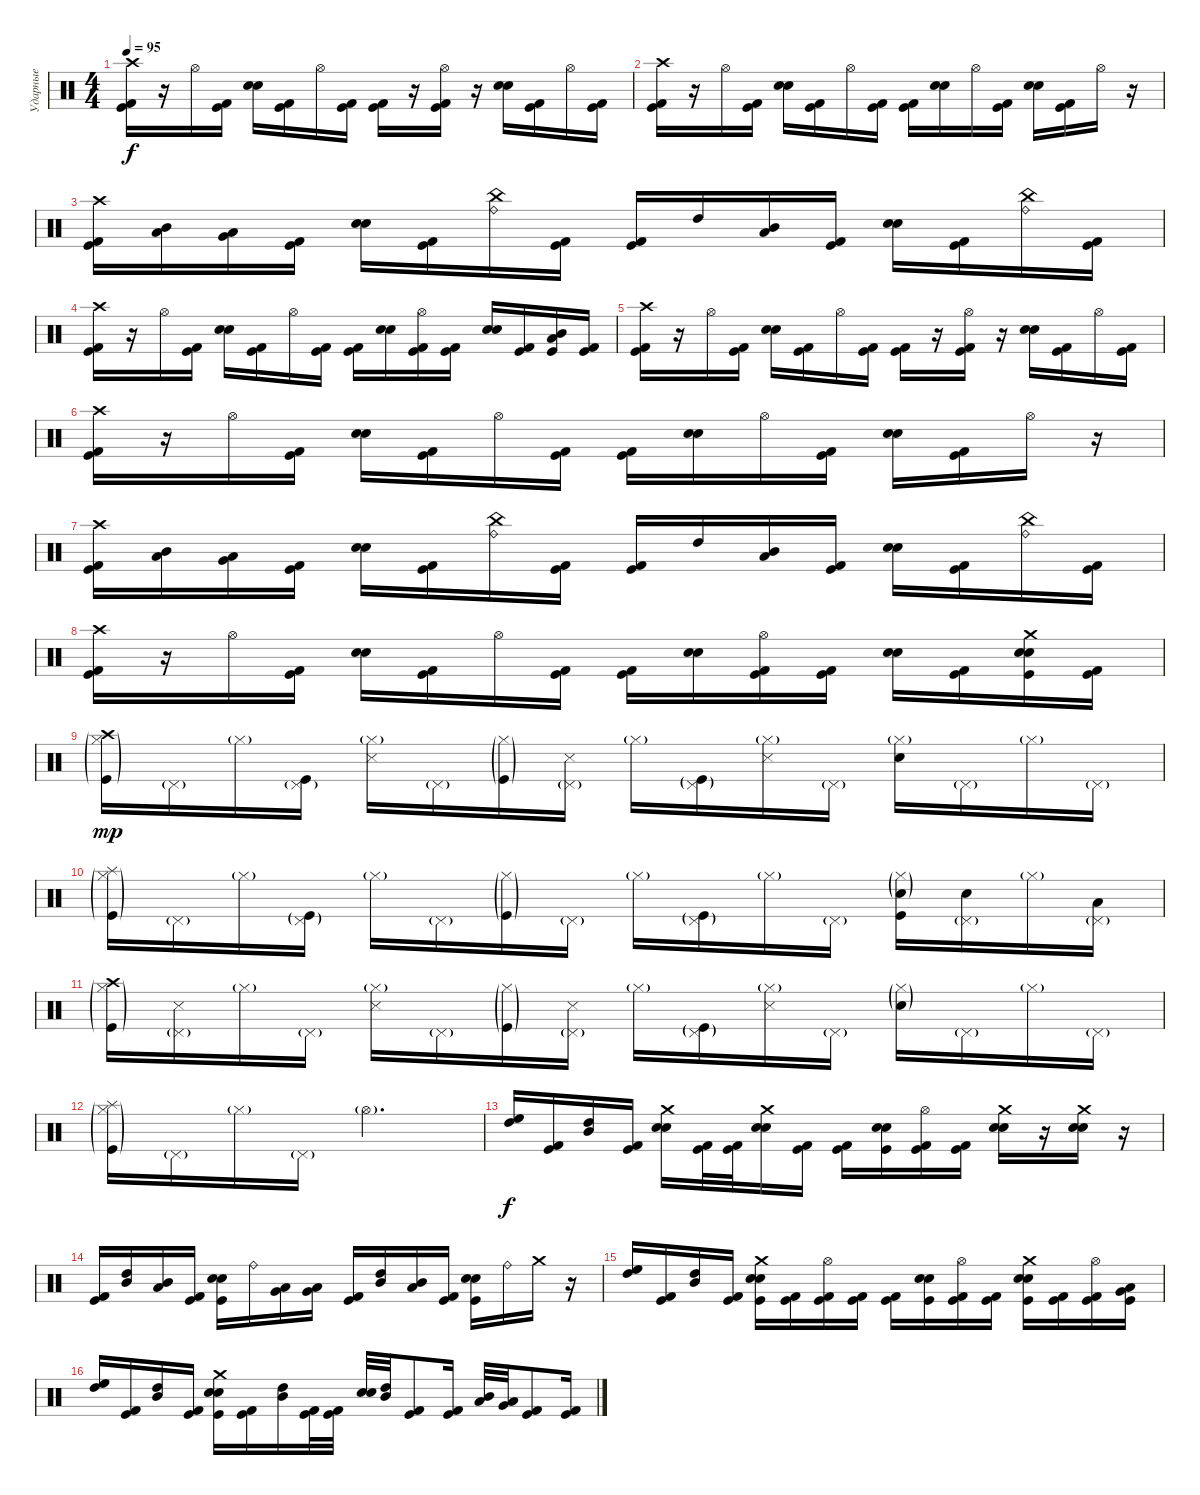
\track ("Ударные" "Ударные") {instrument percussion}
\staff {score}
\articulation defaults
\ts (4 4)
\tempo 95
\clef neutral
\ks c
("Crash high (hit)" "Kick (hit) 2" "Kick (hit)").16{dy f} r.16 "Hi-Hat (open)".16 ("Kick (hit) 2" "Kick (hit)").16 ("Snare (hit)" "Electric Snare (hit)").16 ("Kick (hit) 2" "Kick (hit)").16 "Hi-Hat (open)".16 ("Kick (hit) 2" "Kick (hit)").16 ("Kick (hit) 2" "Kick (hit)").16 r.16 ("Hi-Hat (open)" "Kick (hit) 2" "Kick (hit)").16 r.16 ("Electric Snare (hit)" "Snare (hit)").16 ("Kick (hit) 2" "Kick (hit)").16 "Hi-Hat (open)".16 ("Kick (hit) 2" "Kick (hit)").16 |
("Crash high (hit)" "Kick (hit) 2" "Kick (hit)").16 r.16 "Hi-Hat (open)".16 ("Kick (hit) 2" "Kick (hit)").16 ("Snare (hit)" "Electric Snare (hit)").16 ("Kick (hit) 2" "Kick (hit)").16 "Hi-Hat (open)".16 ("Kick (hit) 2" "Kick (hit)").16 ("Kick (hit) 2" "Kick (hit)").16 ("Snare (hit)" "Electric Snare (hit)").16 "Hi-Hat (open)".16 ("Kick (hit) 2" "Kick (hit)").16 ("Electric Snare (hit)" "Snare (hit)").16 ("Kick (hit) 2" "Kick (hit)").16 "Hi-Hat (open)".16 r.16 |
("Crash high (hit)" "Kick (hit) 2" "Kick (hit)").16 ("Mid Tom (hit)" "Low Tom (hit)").16 ("Low Tom (hit)" "Very Low Tom (hit)").16 ("Kick (hit) 2" "Kick (hit)").16 ("Snare (hit)" "Electric Snare (hit)").16 ("Kick (hit) 2" "Kick (hit)").16 ("China (hit)" "Ride (bell)").16 ("Kick (hit) 2" "Kick (hit)").16 ("Kick (hit) 2" "Kick (hit)").16 "High Tom (hit)".16 ("Mid Tom (hit)" "Low Tom (hit)").16 ("Kick (hit) 2" "Kick (hit)").16 ("Electric Snare (hit)" "Snare (hit)").16 ("Kick (hit) 2" "Kick (hit)").16 ("China (hit)" "Ride (bell)").16 ("Kick (hit) 2" "Kick (hit)").16 |
("Crash high (hit)" "Kick (hit) 2" "Kick (hit)").16 r.16 "Hi-Hat (open)".16 ("Kick (hit) 2" "Kick (hit)").16 ("Snare (hit)" "Electric Snare (hit)").16 ("Kick (hit) 2" "Kick (hit)").16 "Hi-Hat (open)".16 ("Kick (hit) 2" "Kick (hit)").16 ("Kick (hit) 2" "Kick (hit)").16 ("Snare (hit)" "Electric Snare (hit)").16 ("Hi-Hat (open)" "Kick (hit) 2" "Kick (hit)").16 ("Kick (hit) 2" "Kick (hit)").16 ("Electric Snare (hit)" "Snare (hit)").16 ("Kick (hit) 2" "Kick (hit)").16 ("Mid Tom (hit)" "Low Tom (hit)" "Kick (hit)").16 ("Kick (hit) 2" "Kick (hit)").16 |
("Crash high (hit)" "Kick (hit) 2" "Kick (hit)").16 r.16 "Hi-Hat (open)".16 ("Kick (hit) 2" "Kick (hit)").16 ("Snare (hit)" "Electric Snare (hit)").16 ("Kick (hit) 2" "Kick (hit)").16 "Hi-Hat (open)".16 ("Kick (hit) 2" "Kick (hit)").16 ("Kick (hit) 2" "Kick (hit)").16 r.16 ("Hi-Hat (open)" "Kick (hit) 2" "Kick (hit)").16 r.16 ("Electric Snare (hit)" "Snare (hit)").16 ("Kick (hit) 2" "Kick (hit)").16 "Hi-Hat (open)".16 ("Kick (hit) 2" "Kick (hit)").16 |
("Crash high (hit)" "Kick (hit) 2" "Kick (hit)").16 r.16 "Hi-Hat (open)".16 ("Kick (hit) 2" "Kick (hit)").16 ("Snare (hit)" "Electric Snare (hit)").16 ("Kick (hit) 2" "Kick (hit)").16 "Hi-Hat (open)".16 ("Kick (hit) 2" "Kick (hit)").16 ("Kick (hit) 2" "Kick (hit)").16 ("Snare (hit)" "Electric Snare (hit)").16 "Hi-Hat (open)".16 ("Kick (hit) 2" "Kick (hit)").16 ("Electric Snare (hit)" "Snare (hit)").16 ("Kick (hit) 2" "Kick (hit)").16 "Hi-Hat (open)".16 r.16 |
("Crash high (hit)" "Kick (hit) 2" "Kick (hit)").16 ("Mid Tom (hit)" "Low Tom (hit)").16 ("Low Tom (hit)" "Very Low Tom (hit)").16 ("Kick (hit) 2" "Kick (hit)").16 ("Snare (hit)" "Electric Snare (hit)").16 ("Kick (hit) 2" "Kick (hit)").16 ("China (hit)" "Ride (bell)").16 ("Kick (hit) 2" "Kick (hit)").16 ("Kick (hit) 2" "Kick (hit)").16 "High Tom (hit)".16 ("Mid Tom (hit)" "Low Tom (hit)").16 ("Kick (hit) 2" "Kick (hit)").16 ("Electric Snare (hit)" "Snare (hit)").16 ("Kick (hit) 2" "Kick (hit)").16 ("China (hit)" "Ride (bell)").16 ("Kick (hit) 2" "Kick (hit)").16 |
("Crash high (hit)" "Kick (hit) 2" "Kick (hit)").16 r.16 "Hi-Hat (open)".16 ("Kick (hit) 2" "Kick (hit)").16 ("Snare (hit)" "Electric Snare (hit)").16 ("Kick (hit) 2" "Kick (hit)").16 "Hi-Hat (open)".16 ("Kick (hit) 2" "Kick (hit)").16 ("Kick (hit) 2" "Kick (hit)").16 ("Snare (hit)" "Electric Snare (hit)").16 ("Hi-Hat (open)" "Kick (hit) 2" "Kick (hit)").16 ("Kick (hit) 2" "Kick (hit)").16 ("Electric Snare (hit)" "Snare (hit)").16 ("Kick (hit) 2" "Kick (hit)").16 ("Crash medium (hit)" "Snare (hit)" "Electric Snare (hit)" "Kick (hit)").16 ("Kick (hit) 2" "Kick (hit)").16 |
("Hi-Hat (closed)"{g} "Crash high (hit)"{g} "Kick (hit)"{g}).16{dy mp} "Pedal Hi-Hat (hit)"{g}.16 "Hi-Hat (closed)"{g}.16 ("Pedal Hi-Hat (hit)"{g} "Kick (hit)").16 ("Hi-Hat (closed)"{g} "Snare (side stick) 3").16 "Pedal Hi-Hat (hit)"{g}.16 ("Hi-Hat (closed)"{g} "Kick (hit)"{g}).16 ("Pedal Hi-Hat (hit)"{g} "Metronome (hit)").16 "Hi-Hat (closed)"{g}.16 ("Pedal Hi-Hat (hit)"{g} "Kick (hit)"{g}).16 ("Hi-Hat (closed)"{g} "Snare (side stick) 3").16 "Pedal Hi-Hat (hit)"{g}.16 ("Hi-Hat (closed)"{g} "Electric Snare (hit)").16 "Pedal Hi-Hat (hit)"{g}.16 "Hi-Hat (closed)"{g}.16 "Pedal Hi-Hat (hit)"{g}.16 |
("Hi-Hat (closed)"{g} "Splash (hit)"{g} "Kick (hit)"{g}).16 "Pedal Hi-Hat (hit)"{g}.16 "Hi-Hat (closed)"{g}.16 ("Pedal Hi-Hat (hit)"{g} "Kick (hit)"{g}).16 "Hi-Hat (closed)"{g}.16 "Pedal Hi-Hat (hit)"{g}.16 ("Hi-Hat (closed)"{g} "Kick (hit)"{g}).16 "Pedal Hi-Hat (hit)"{g}.16 "Hi-Hat (closed)"{g}.16 ("Pedal Hi-Hat (hit)"{g} "Kick (hit)"{g}).16 "Hi-Hat (closed)"{g}.16 "Pedal Hi-Hat (hit)"{g}.16 ("Hi-Hat (closed)"{g} "Electric Snare (hit)"{g} "Kick (hit)").16 ("Pedal Hi-Hat (hit)"{g} "Electric Snare (hit)").16 "Hi-Hat (closed)"{g}.16 ("Pedal Hi-Hat (hit)"{g} "Low Tom (hit)").16 |
("Hi-Hat (closed)"{g} "Crash high (hit)"{g} "Kick (hit)"{g}).16 ("Pedal Hi-Hat (hit)"{g} "Metronome (hit)").16 "Hi-Hat (closed)"{g}.16 "Pedal Hi-Hat (hit)"{g}.16 ("Hi-Hat (closed)"{g} "Snare (side stick) 3").16 "Pedal Hi-Hat (hit)"{g}.16 ("Hi-Hat (closed)"{g} "Kick (hit)"{g}).16 ("Pedal Hi-Hat (hit)"{g} "Metronome (hit)").16 "Hi-Hat (closed)"{g}.16 ("Pedal Hi-Hat (hit)"{g} "Kick (hit)"{g}).16 ("Hi-Hat (closed)"{g} "Snare (side stick) 3").16 "Pedal Hi-Hat (hit)"{g}.16 ("Hi-Hat (closed)"{g} "Electric Snare (hit)"{g}).16 "Pedal Hi-Hat (hit)"{g}.16 "Hi-Hat (closed)"{g}.16 "Pedal Hi-Hat (hit)"{g}.16 |
("Hi-Hat (closed)"{g} "Splash (hit)"{g} "Kick (hit)"{g}).16 "Pedal Hi-Hat (hit)"{g}.16 "Hi-Hat (closed)"{g}.16 "Pedal Hi-Hat (hit)"{g}.16 "Hi-Hat (open)"{g}.2{d} |
("High Floor Tom (hit)" "High Tom (hit)").16{dy f} ("Kick (hit) 2" "Kick (hit)").16 ("High Tom (hit)" "Mid Tom (hit)").16 ("Kick (hit) 2" "Kick (hit)").16 ("Crash medium (hit)" "Electric Snare (hit)" "Snare (hit)").16 ("Kick (hit) 2" "Kick (hit)").32 ("Kick (hit) 2" "Kick (hit)").32 ("Crash medium (hit)" "Electric Snare (hit)" "Snare (hit)").16 ("Kick (hit) 2" "Kick (hit)").16 ("Kick (hit) 2" "Kick (hit)").16 ("Electric Snare (hit)" "Snare (hit)" "Kick (hit)").16 ("Hi-Hat (open)" "Kick (hit) 2" "Kick (hit)").16 ("Kick (hit) 2" "Kick (hit)").16 ("Crash medium (hit)" "Electric Snare (hit)" "Snare (hit)").16 r.16 ("Crash medium (hit)" "Electric Snare (hit)" "Snare (hit)").16 r.16 |
("Kick (hit) 2" "Kick (hit)").16 ("High Tom (hit)" "Mid Tom (hit)").16 ("Mid Tom (hit)" "Low Tom (hit)").16 ("Kick (hit) 2" "Kick (hit)").16 ("Electric Snare (hit)" "Snare (hit)" "Kick (hit)").16 "Ride (bell)".16 ("Low Tom (hit)" "Very Low Tom (hit)").16 ("Very Low Tom (hit)" "Low Floor Tom (hit)").16 ("Kick (hit) 2" "Kick (hit)").16 ("High Tom (hit)" "Mid Tom (hit)").16 ("Mid Tom (hit)" "Low Tom (hit)").16 ("Kick (hit) 2" "Kick (hit)").16 ("Electric Snare (hit)" "Snare (hit)" "Kick (hit)").16 "Ride (bell)".16 "Crash medium (hit)".16 r.16 |
("High Floor Tom (hit)" "High Tom (hit)").16 ("Kick (hit) 2" "Kick (hit)").16 ("High Tom (hit)" "Mid Tom (hit)").16 ("Kick (hit) 2" "Kick (hit)").16 ("Crash medium (hit)" "Electric Snare (hit)" "Snare (hit)" "Kick (hit)").16 ("Kick (hit) 2" "Kick (hit)").16 ("Hi-Hat (open)" "Kick (hit) 2" "Kick (hit)").16 ("Kick (hit) 2" "Kick (hit)").16 ("Kick (hit) 2" "Kick (hit)").16 ("Electric Snare (hit)" "Snare (hit)" "Kick (hit)").16 ("Hi-Hat (open)" "Kick (hit) 2" "Kick (hit)").16 ("Kick (hit) 2" "Kick (hit)").16 ("Crash medium (hit)" "Electric Snare (hit)" "Snare (hit)" "Kick (hit)").16 ("Kick (hit) 2" "Kick (hit)").16 ("Hi-Hat (open)" "Kick (hit) 2" "Kick (hit)").16 ("Very Low Tom (hit)" "Low Floor Tom (hit)" "Kick (hit)").16 |
("High Floor Tom (hit)" "High Tom (hit)").16 ("Kick (hit) 2" "Kick (hit)").16 ("High Tom (hit)" "Mid Tom (hit)").16 ("Kick (hit) 2" "Kick (hit)").16 ("Crash medium (hit)" "Electric Snare (hit)" "Snare (hit)" "Kick (hit)").16 ("Kick (hit) 2" "Kick (hit)").16 ("High Tom (hit)" "Mid Tom (hit)").16 ("Kick (hit) 2" "Kick (hit)").32 ("Kick (hit) 2" "Kick (hit)").32 ("Electric Snare (hit)" "Snare (hit)").32 ("High Tom (hit)" "Mid Tom (hit)").32 ("Kick (hit) 2" "Kick (hit)").8 ("Kick (hit) 2" "Kick (hit)").16 ("Mid Tom (hit)" "Low Tom (hit)").32 ("Low Tom (hit)" "Very Low Tom (hit)").32 ("Kick (hit) 2" "Kick (hit)").8 ("Kick (hit) 2" "Kick (hit)").16
